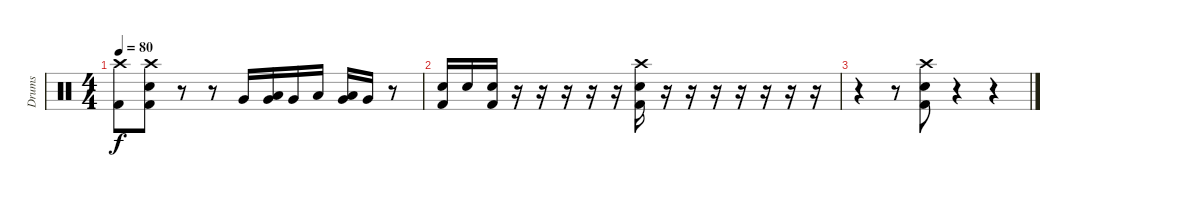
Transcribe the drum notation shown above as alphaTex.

\track ("Drums" "Drums") {instrument percussion}
\staff {score}
\articulation defaults
\ts (4 4)
\tempo 80
\clef neutral
\ks c
("Crash high (hit)" "Kick (hit) 2").8{dy f} ("Crash high (hit)" "Snare (hit) 2" "Kick (hit) 2").8 r.8 r.8 "Very Low Tom (hit)".16 ("Very Low Tom (hit)" "Low Floor Tom (hit)").16 "Very Low Tom (hit)".16 "Low Floor Tom (hit)".16 ("Very Low Tom (hit)" "Low Floor Tom (hit)").16 "Very Low Tom (hit)".16 r.8 |
("Snare (hit) 2" "Kick (hit) 2").16 "Snare (hit) 2".16 ("Snare (hit) 2" "Kick (hit) 2").16 r.16 r.16 r.16 r.16 r.16 ("Crash high (hit)" "Snare (hit) 2" "Kick (hit) 2").16 r.16 r.16 r.16 r.16 r.16 r.16 r.16 |
r.4 r.8 ("Crash high (hit)" "Snare (hit) 2" "Kick (hit) 2").8 r.4 r.4
